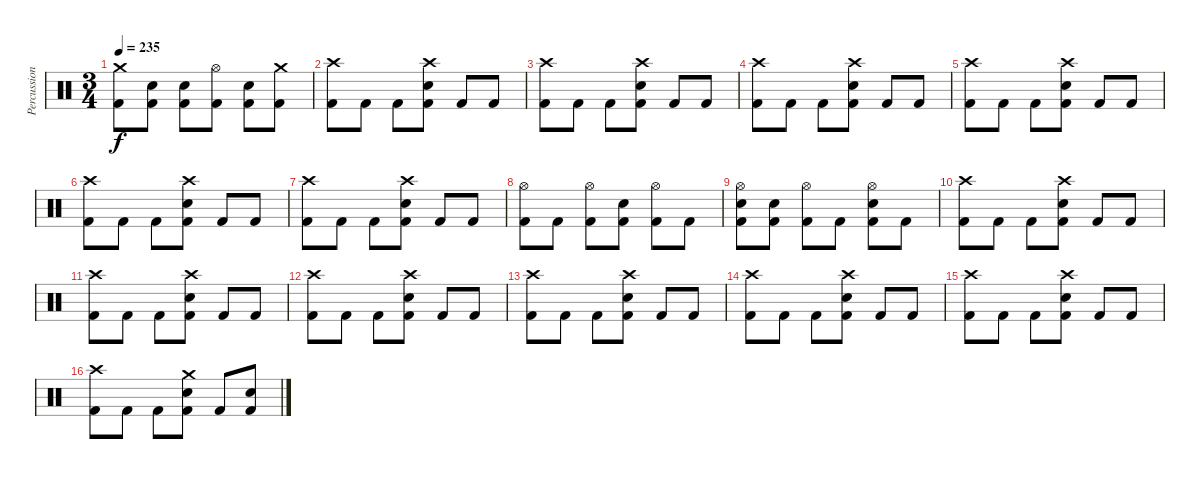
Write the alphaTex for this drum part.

\track ("Percussion" "Percussion") {instrument percussion}
\staff {score}
\articulation defaults
\ts (3 4)
\tempo 235
\clef neutral
\ks c
("Crash medium (hit)" "Kick (hit) 2").8{dy f} ("Electric Snare (hit)" "Kick (hit) 2").8 ("Electric Snare (hit)" "Kick (hit) 2").8 ("Hi-Hat (open)" "Kick (hit) 2").8 ("Electric Snare (hit)" "Kick (hit) 2").8 ("Crash medium (hit)" "Kick (hit) 2").8 |
("Crash high (hit)" "Kick (hit) 2").8 "Kick (hit) 2".8 "Kick (hit) 2".8 ("Crash high (hit)" "Electric Snare (hit)" "Kick (hit) 2").8 "Kick (hit) 2".8 "Kick (hit) 2".8 |
("Crash high (hit)" "Kick (hit) 2").8 "Kick (hit) 2".8 "Kick (hit) 2".8 ("Crash high (hit)" "Electric Snare (hit)" "Kick (hit) 2").8 "Kick (hit) 2".8 "Kick (hit) 2".8 |
("Crash high (hit)" "Kick (hit) 2").8 "Kick (hit) 2".8 "Kick (hit) 2".8 ("Crash high (hit)" "Electric Snare (hit)" "Kick (hit) 2").8 "Kick (hit) 2".8 "Kick (hit) 2".8 |
("Crash high (hit)" "Kick (hit) 2").8 "Kick (hit) 2".8 "Kick (hit) 2".8 ("Crash high (hit)" "Electric Snare (hit)" "Kick (hit) 2").8 "Kick (hit) 2".8 "Kick (hit) 2".8 |
("Crash high (hit)" "Kick (hit) 2").8 "Kick (hit) 2".8 "Kick (hit) 2".8 ("Crash high (hit)" "Electric Snare (hit)" "Kick (hit) 2").8 "Kick (hit) 2".8 "Kick (hit) 2".8 |
("Crash high (hit)" "Kick (hit) 2").8 "Kick (hit) 2".8 "Kick (hit) 2".8 ("Crash high (hit)" "Electric Snare (hit)" "Kick (hit) 2").8 "Kick (hit) 2".8 "Kick (hit) 2".8 |
("Hi-Hat (open)" "Kick (hit) 2").8 "Kick (hit) 2".8 ("Hi-Hat (open)" "Kick (hit) 2").8 ("Electric Snare (hit)" "Kick (hit) 2").8 ("Hi-Hat (open)" "Kick (hit) 2").8 "Kick (hit) 2".8 |
("Hi-Hat (open)" "Electric Snare (hit)" "Kick (hit) 2").8 ("Electric Snare (hit)" "Kick (hit) 2").8 ("Hi-Hat (open)" "Kick (hit) 2").8 "Kick (hit) 2".8 ("Hi-Hat (open)" "Electric Snare (hit)" "Kick (hit) 2").8 "Kick (hit) 2".8 |
("Crash high (hit)" "Kick (hit) 2").8 "Kick (hit) 2".8 "Kick (hit) 2".8 ("Crash high (hit)" "Electric Snare (hit)" "Kick (hit) 2").8 "Kick (hit) 2".8 "Kick (hit) 2".8 |
("Crash high (hit)" "Kick (hit) 2").8 "Kick (hit) 2".8 "Kick (hit) 2".8 ("Crash high (hit)" "Electric Snare (hit)" "Kick (hit) 2").8 "Kick (hit) 2".8 "Kick (hit) 2".8 |
("Crash high (hit)" "Kick (hit) 2").8 "Kick (hit) 2".8 "Kick (hit) 2".8 ("Crash high (hit)" "Electric Snare (hit)" "Kick (hit) 2").8 "Kick (hit) 2".8 "Kick (hit) 2".8 |
("Crash high (hit)" "Kick (hit) 2").8 "Kick (hit) 2".8 "Kick (hit) 2".8 ("Crash high (hit)" "Electric Snare (hit)" "Kick (hit) 2").8 "Kick (hit) 2".8 "Kick (hit) 2".8 |
("Crash high (hit)" "Kick (hit) 2").8 "Kick (hit) 2".8 "Kick (hit) 2".8 ("Crash high (hit)" "Electric Snare (hit)" "Kick (hit) 2").8 "Kick (hit) 2".8 "Kick (hit) 2".8 |
("Crash high (hit)" "Kick (hit) 2").8 "Kick (hit) 2".8 "Kick (hit) 2".8 ("Crash high (hit)" "Electric Snare (hit)" "Kick (hit) 2").8 "Kick (hit) 2".8 "Kick (hit) 2".8 |
("Crash high (hit)" "Kick (hit) 2").8 "Kick (hit) 2".8 "Kick (hit) 2".8 ("Crash medium (hit)" "Electric Snare (hit)" "Kick (hit) 2").8 "Kick (hit) 2".8 ("Electric Snare (hit)" "Kick (hit) 2").8
